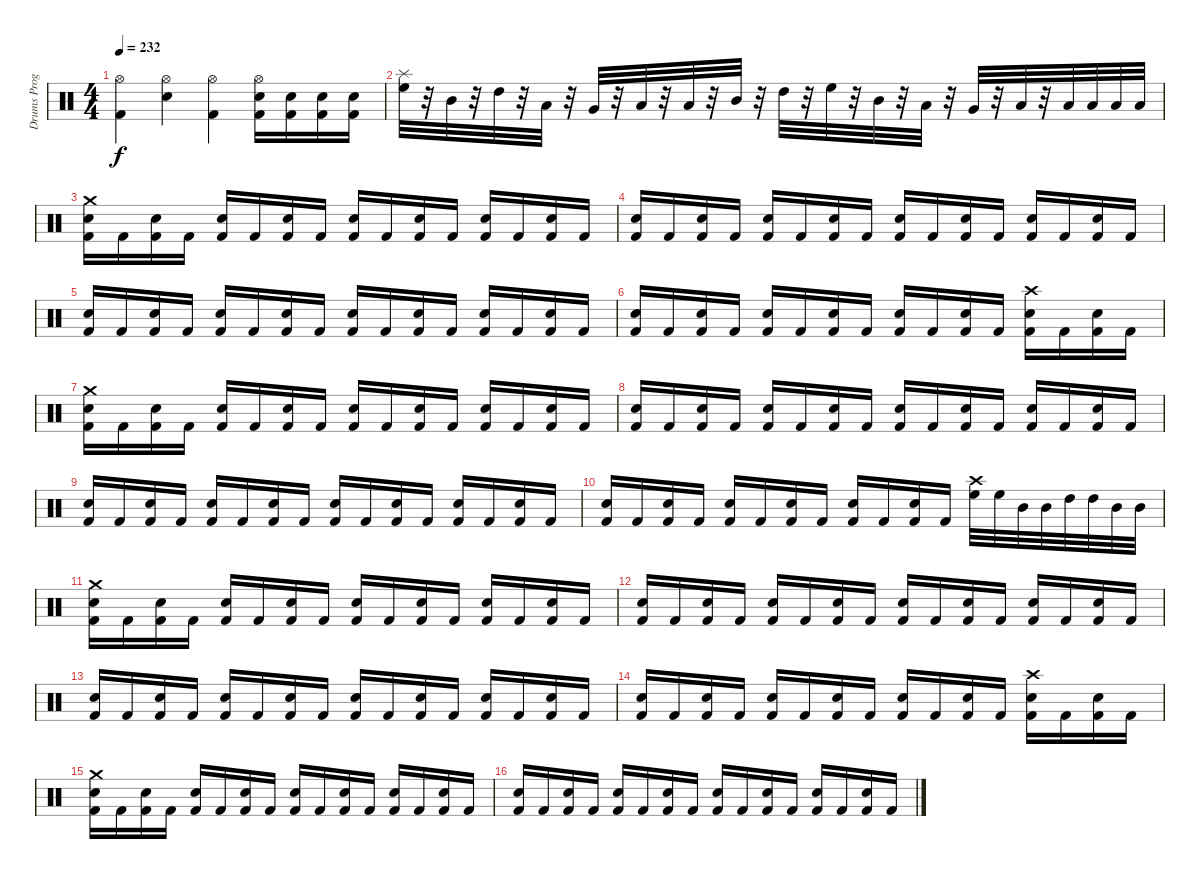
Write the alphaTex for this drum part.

\track ("Drums Programming" "Drums Prog") {instrument percussion}
\staff {score}
\articulation defaults
\ts (4 4)
\tempo 232
\clef neutral
\ks c
("Hi-Hat (open)" "Kick (hit) 2").4{dy f} ("Hi-Hat (open)" "Electric Snare (hit)").4 ("Hi-Hat (open)" "Kick (hit) 2").4 ("Hi-Hat (open)" "Electric Snare (hit)" "Kick (hit) 2").16 ("Electric Snare (hit)" "Kick (hit) 2").16 ("Electric Snare (hit)" "Kick (hit) 2").16 ("Electric Snare (hit)" "Kick (hit) 2").16 |
("High Floor Tom (hit)" "Splash (hit)").32 r.32 "Mid Tom (hit)".32 r.32 "High Tom (hit)".32 r.32 "Low Tom (hit)".32 r.32 "Very Low Tom (hit)".32 r.32 "Low Floor Tom (hit)".32 r.32 "Low Tom (hit)".32 r.32 "Mid Tom (hit)".32 r.32 "High Tom (hit)".32 r.32 "High Floor Tom (hit)".32 r.32 "Mid Tom (hit)".32 r.32 "Low Floor Tom (hit)".32 r.32 "Very Low Tom (hit)".32 r.32 "Low Tom (hit)".32 r.32 "Low Tom (hit)".32 "Low Tom (hit)".32 "Low Tom (hit)".32 "Low Tom (hit)".32 |
("Crash medium (hit)" "Electric Snare (hit)" "Kick (hit) 2").16 "Kick (hit) 2".16 ("Electric Snare (hit)" "Kick (hit) 2").16 "Kick (hit) 2".16 ("Electric Snare (hit)" "Kick (hit) 2").16 "Kick (hit) 2".16 ("Electric Snare (hit)" "Kick (hit) 2").16 "Kick (hit) 2".16 ("Electric Snare (hit)" "Kick (hit) 2").16 "Kick (hit) 2".16 ("Electric Snare (hit)" "Kick (hit) 2").16 "Kick (hit) 2".16 ("Electric Snare (hit)" "Kick (hit) 2").16 "Kick (hit) 2".16 ("Electric Snare (hit)" "Kick (hit) 2").16 "Kick (hit) 2".16 |
("Electric Snare (hit)" "Kick (hit) 2").16 "Kick (hit) 2".16 ("Electric Snare (hit)" "Kick (hit) 2").16 "Kick (hit) 2".16 ("Electric Snare (hit)" "Kick (hit) 2").16 "Kick (hit) 2".16 ("Electric Snare (hit)" "Kick (hit) 2").16 "Kick (hit) 2".16 ("Electric Snare (hit)" "Kick (hit) 2").16 "Kick (hit) 2".16 ("Electric Snare (hit)" "Kick (hit) 2").16 "Kick (hit) 2".16 ("Electric Snare (hit)" "Kick (hit) 2").16 "Kick (hit) 2".16 ("Electric Snare (hit)" "Kick (hit) 2").16 "Kick (hit) 2".16 |
("Electric Snare (hit)" "Kick (hit) 2").16 "Kick (hit) 2".16 ("Electric Snare (hit)" "Kick (hit) 2").16 "Kick (hit) 2".16 ("Electric Snare (hit)" "Kick (hit) 2").16 "Kick (hit) 2".16 ("Electric Snare (hit)" "Kick (hit) 2").16 "Kick (hit) 2".16 ("Electric Snare (hit)" "Kick (hit) 2").16 "Kick (hit) 2".16 ("Electric Snare (hit)" "Kick (hit) 2").16 "Kick (hit) 2".16 ("Electric Snare (hit)" "Kick (hit) 2").16 "Kick (hit) 2".16 ("Electric Snare (hit)" "Kick (hit) 2").16 "Kick (hit) 2".16 |
("Electric Snare (hit)" "Kick (hit) 2").16 "Kick (hit) 2".16 ("Electric Snare (hit)" "Kick (hit) 2").16 "Kick (hit) 2".16 ("Electric Snare (hit)" "Kick (hit) 2").16 "Kick (hit) 2".16 ("Electric Snare (hit)" "Kick (hit) 2").16 "Kick (hit) 2".16 ("Electric Snare (hit)" "Kick (hit) 2").16 "Kick (hit) 2".16 ("Electric Snare (hit)" "Kick (hit) 2").16 "Kick (hit) 2".16 ("Crash high (hit)" "Electric Snare (hit)" "Kick (hit) 2").16 "Kick (hit) 2".16 ("Electric Snare (hit)" "Kick (hit) 2").16 "Kick (hit) 2".16 |
("Crash medium (hit)" "Electric Snare (hit)" "Kick (hit) 2").16 "Kick (hit) 2".16 ("Electric Snare (hit)" "Kick (hit) 2").16 "Kick (hit) 2".16 ("Electric Snare (hit)" "Kick (hit) 2").16 "Kick (hit) 2".16 ("Electric Snare (hit)" "Kick (hit) 2").16 "Kick (hit) 2".16 ("Electric Snare (hit)" "Kick (hit) 2").16 "Kick (hit) 2".16 ("Electric Snare (hit)" "Kick (hit) 2").16 "Kick (hit) 2".16 ("Electric Snare (hit)" "Kick (hit) 2").16 "Kick (hit) 2".16 ("Electric Snare (hit)" "Kick (hit) 2").16 "Kick (hit) 2".16 |
("Electric Snare (hit)" "Kick (hit) 2").16 "Kick (hit) 2".16 ("Electric Snare (hit)" "Kick (hit) 2").16 "Kick (hit) 2".16 ("Electric Snare (hit)" "Kick (hit) 2").16 "Kick (hit) 2".16 ("Electric Snare (hit)" "Kick (hit) 2").16 "Kick (hit) 2".16 ("Electric Snare (hit)" "Kick (hit) 2").16 "Kick (hit) 2".16 ("Electric Snare (hit)" "Kick (hit) 2").16 "Kick (hit) 2".16 ("Electric Snare (hit)" "Kick (hit) 2").16 "Kick (hit) 2".16 ("Electric Snare (hit)" "Kick (hit) 2").16 "Kick (hit) 2".16 |
("Electric Snare (hit)" "Kick (hit) 2").16 "Kick (hit) 2".16 ("Electric Snare (hit)" "Kick (hit) 2").16 "Kick (hit) 2".16 ("Electric Snare (hit)" "Kick (hit) 2").16 "Kick (hit) 2".16 ("Electric Snare (hit)" "Kick (hit) 2").16 "Kick (hit) 2".16 ("Electric Snare (hit)" "Kick (hit) 2").16 "Kick (hit) 2".16 ("Electric Snare (hit)" "Kick (hit) 2").16 "Kick (hit) 2".16 ("Electric Snare (hit)" "Kick (hit) 2").16 "Kick (hit) 2".16 ("Electric Snare (hit)" "Kick (hit) 2").16 "Kick (hit) 2".16 |
("Electric Snare (hit)" "Kick (hit) 2").16 "Kick (hit) 2".16 ("Electric Snare (hit)" "Kick (hit) 2").16 "Kick (hit) 2".16 ("Electric Snare (hit)" "Kick (hit) 2").16 "Kick (hit) 2".16 ("Electric Snare (hit)" "Kick (hit) 2").16 "Kick (hit) 2".16 ("Electric Snare (hit)" "Kick (hit) 2").16 "Kick (hit) 2".16 ("Electric Snare (hit)" "Kick (hit) 2").16 "Kick (hit) 2".16 ("Crash high (hit)" "High Floor Tom (hit)").32 "High Floor Tom (hit)".32 "Mid Tom (hit)".32 "Mid Tom (hit)".32 "High Tom (hit)".32 "High Tom (hit)".32 "Mid Tom (hit)".32 "Mid Tom (hit)".32 |
("Crash medium (hit)" "Electric Snare (hit)" "Kick (hit) 2").16 "Kick (hit) 2".16 ("Electric Snare (hit)" "Kick (hit) 2").16 "Kick (hit) 2".16 ("Electric Snare (hit)" "Kick (hit) 2").16 "Kick (hit) 2".16 ("Electric Snare (hit)" "Kick (hit) 2").16 "Kick (hit) 2".16 ("Electric Snare (hit)" "Kick (hit) 2").16 "Kick (hit) 2".16 ("Electric Snare (hit)" "Kick (hit) 2").16 "Kick (hit) 2".16 ("Electric Snare (hit)" "Kick (hit) 2").16 "Kick (hit) 2".16 ("Electric Snare (hit)" "Kick (hit) 2").16 "Kick (hit) 2".16 |
("Electric Snare (hit)" "Kick (hit) 2").16 "Kick (hit) 2".16 ("Electric Snare (hit)" "Kick (hit) 2").16 "Kick (hit) 2".16 ("Electric Snare (hit)" "Kick (hit) 2").16 "Kick (hit) 2".16 ("Electric Snare (hit)" "Kick (hit) 2").16 "Kick (hit) 2".16 ("Electric Snare (hit)" "Kick (hit) 2").16 "Kick (hit) 2".16 ("Electric Snare (hit)" "Kick (hit) 2").16 "Kick (hit) 2".16 ("Electric Snare (hit)" "Kick (hit) 2").16 "Kick (hit) 2".16 ("Electric Snare (hit)" "Kick (hit) 2").16 "Kick (hit) 2".16 |
("Electric Snare (hit)" "Kick (hit) 2").16 "Kick (hit) 2".16 ("Electric Snare (hit)" "Kick (hit) 2").16 "Kick (hit) 2".16 ("Electric Snare (hit)" "Kick (hit) 2").16 "Kick (hit) 2".16 ("Electric Snare (hit)" "Kick (hit) 2").16 "Kick (hit) 2".16 ("Electric Snare (hit)" "Kick (hit) 2").16 "Kick (hit) 2".16 ("Electric Snare (hit)" "Kick (hit) 2").16 "Kick (hit) 2".16 ("Electric Snare (hit)" "Kick (hit) 2").16 "Kick (hit) 2".16 ("Electric Snare (hit)" "Kick (hit) 2").16 "Kick (hit) 2".16 |
("Electric Snare (hit)" "Kick (hit) 2").16 "Kick (hit) 2".16 ("Electric Snare (hit)" "Kick (hit) 2").16 "Kick (hit) 2".16 ("Electric Snare (hit)" "Kick (hit) 2").16 "Kick (hit) 2".16 ("Electric Snare (hit)" "Kick (hit) 2").16 "Kick (hit) 2".16 ("Electric Snare (hit)" "Kick (hit) 2").16 "Kick (hit) 2".16 ("Electric Snare (hit)" "Kick (hit) 2").16 "Kick (hit) 2".16 ("Crash high (hit)" "Electric Snare (hit)" "Kick (hit) 2").16 "Kick (hit) 2".16 ("Electric Snare (hit)" "Kick (hit) 2").16 "Kick (hit) 2".16 |
("Crash medium (hit)" "Electric Snare (hit)" "Kick (hit) 2").16 "Kick (hit) 2".16 ("Electric Snare (hit)" "Kick (hit) 2").16 "Kick (hit) 2".16 ("Electric Snare (hit)" "Kick (hit) 2").16 "Kick (hit) 2".16 ("Electric Snare (hit)" "Kick (hit) 2").16 "Kick (hit) 2".16 ("Electric Snare (hit)" "Kick (hit) 2").16 "Kick (hit) 2".16 ("Electric Snare (hit)" "Kick (hit) 2").16 "Kick (hit) 2".16 ("Electric Snare (hit)" "Kick (hit) 2").16 "Kick (hit) 2".16 ("Electric Snare (hit)" "Kick (hit) 2").16 "Kick (hit) 2".16 |
("Electric Snare (hit)" "Kick (hit) 2").16 "Kick (hit) 2".16 ("Electric Snare (hit)" "Kick (hit) 2").16 "Kick (hit) 2".16 ("Electric Snare (hit)" "Kick (hit) 2").16 "Kick (hit) 2".16 ("Electric Snare (hit)" "Kick (hit) 2").16 "Kick (hit) 2".16 ("Electric Snare (hit)" "Kick (hit) 2").16 "Kick (hit) 2".16 ("Electric Snare (hit)" "Kick (hit) 2").16 "Kick (hit) 2".16 ("Electric Snare (hit)" "Kick (hit) 2").16 "Kick (hit) 2".16 ("Electric Snare (hit)" "Kick (hit) 2").16 "Kick (hit) 2".16
